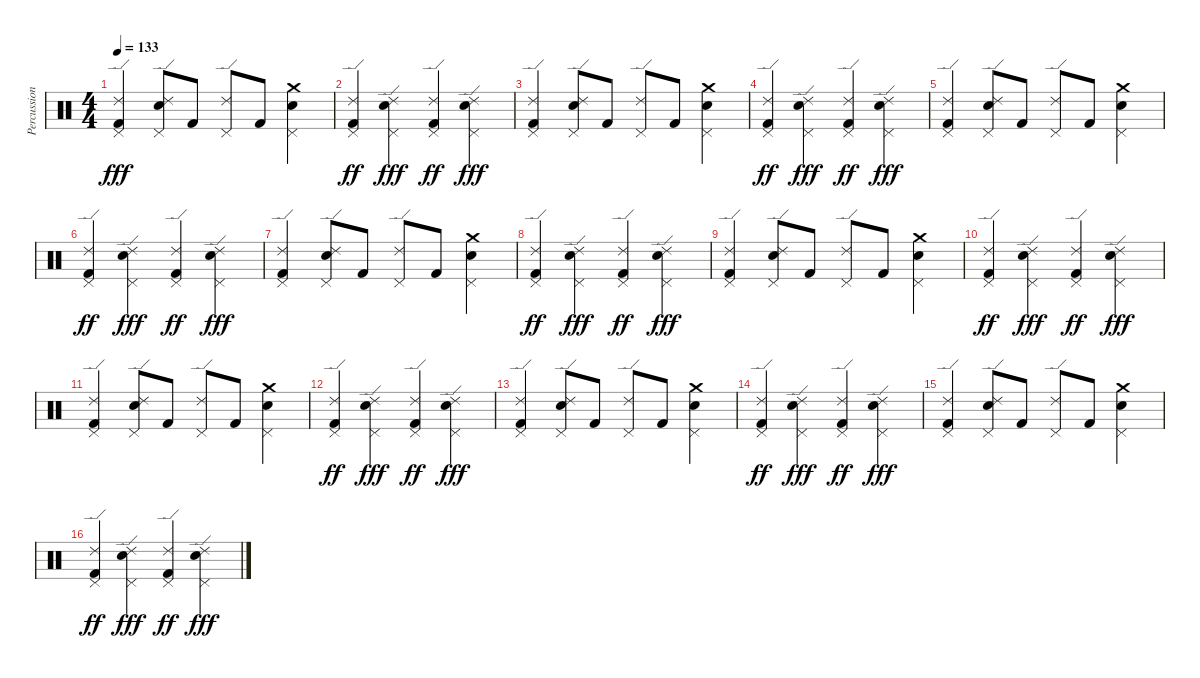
\track ("Percussion" "Percussion") {instrument percussion}
\staff {score}
\articulation defaults
\ts (4 4)
\tempo 133
\clef neutral
\ks c
("Ride (edge) 2" "Pedal Hi-Hat (hit)" "Kick (hit) 2").4{dy fff} ("Ride (edge) 2" "Electric Snare (hit)" "Pedal Hi-Hat (hit)").8 "Kick (hit) 2".8 ("Ride (edge) 2" "Pedal Hi-Hat (hit)").8 "Kick (hit) 2".8 ("Crash medium (hit)" "Electric Snare (hit)" "Pedal Hi-Hat (hit)").4 |
("Ride (edge) 2" "Pedal Hi-Hat (hit)" "Kick (hit) 2").4{dy ff} ("Ride (edge) 2" "Electric Snare (hit)" "Pedal Hi-Hat (hit)").4{dy fff} ("Ride (edge) 2" "Pedal Hi-Hat (hit)" "Kick (hit) 2").4{dy ff} ("Ride (edge) 2" "Electric Snare (hit)" "Pedal Hi-Hat (hit)").4{dy fff} |
("Ride (edge) 2" "Pedal Hi-Hat (hit)" "Kick (hit) 2").4 ("Ride (edge) 2" "Electric Snare (hit)" "Pedal Hi-Hat (hit)").8 "Kick (hit) 2".8 ("Ride (edge) 2" "Pedal Hi-Hat (hit)").8 "Kick (hit) 2".8 ("Crash medium (hit)" "Electric Snare (hit)" "Pedal Hi-Hat (hit)").4 |
("Ride (edge) 2" "Pedal Hi-Hat (hit)" "Kick (hit) 2").4{dy ff} ("Ride (edge) 2" "Electric Snare (hit)" "Pedal Hi-Hat (hit)").4{dy fff} ("Ride (edge) 2" "Pedal Hi-Hat (hit)" "Kick (hit) 2").4{dy ff} ("Ride (edge) 2" "Electric Snare (hit)" "Pedal Hi-Hat (hit)").4{dy fff} |
("Ride (edge) 2" "Pedal Hi-Hat (hit)" "Kick (hit) 2").4 ("Ride (edge) 2" "Electric Snare (hit)" "Pedal Hi-Hat (hit)").8 "Kick (hit) 2".8 ("Ride (edge) 2" "Pedal Hi-Hat (hit)").8 "Kick (hit) 2".8 ("Crash medium (hit)" "Electric Snare (hit)" "Pedal Hi-Hat (hit)").4 |
("Ride (edge) 2" "Pedal Hi-Hat (hit)" "Kick (hit) 2").4{dy ff} ("Ride (edge) 2" "Electric Snare (hit)" "Pedal Hi-Hat (hit)").4{dy fff} ("Ride (edge) 2" "Pedal Hi-Hat (hit)" "Kick (hit) 2").4{dy ff} ("Ride (edge) 2" "Electric Snare (hit)" "Pedal Hi-Hat (hit)").4{dy fff} |
("Ride (edge) 2" "Pedal Hi-Hat (hit)" "Kick (hit) 2").4 ("Ride (edge) 2" "Electric Snare (hit)" "Pedal Hi-Hat (hit)").8 "Kick (hit) 2".8 ("Ride (edge) 2" "Pedal Hi-Hat (hit)").8 "Kick (hit) 2".8 ("Crash medium (hit)" "Electric Snare (hit)" "Pedal Hi-Hat (hit)").4 |
("Ride (edge) 2" "Pedal Hi-Hat (hit)" "Kick (hit) 2").4{dy ff} ("Ride (edge) 2" "Electric Snare (hit)" "Pedal Hi-Hat (hit)").4{dy fff} ("Ride (edge) 2" "Pedal Hi-Hat (hit)" "Kick (hit) 2").4{dy ff} ("Ride (edge) 2" "Electric Snare (hit)" "Pedal Hi-Hat (hit)").4{dy fff} |
("Ride (edge) 2" "Pedal Hi-Hat (hit)" "Kick (hit) 2").4 ("Ride (edge) 2" "Electric Snare (hit)" "Pedal Hi-Hat (hit)").8 "Kick (hit) 2".8 ("Ride (edge) 2" "Pedal Hi-Hat (hit)").8 "Kick (hit) 2".8 ("Crash medium (hit)" "Electric Snare (hit)" "Pedal Hi-Hat (hit)").4 |
("Ride (edge) 2" "Pedal Hi-Hat (hit)" "Kick (hit) 2").4{dy ff} ("Ride (edge) 2" "Electric Snare (hit)" "Pedal Hi-Hat (hit)").4{dy fff} ("Ride (edge) 2" "Pedal Hi-Hat (hit)" "Kick (hit) 2").4{dy ff} ("Ride (edge) 2" "Electric Snare (hit)" "Pedal Hi-Hat (hit)").4{dy fff} |
("Ride (edge) 2" "Pedal Hi-Hat (hit)" "Kick (hit) 2").4 ("Ride (edge) 2" "Electric Snare (hit)" "Pedal Hi-Hat (hit)").8 "Kick (hit) 2".8 ("Ride (edge) 2" "Pedal Hi-Hat (hit)").8 "Kick (hit) 2".8 ("Crash medium (hit)" "Electric Snare (hit)" "Pedal Hi-Hat (hit)").4 |
("Ride (edge) 2" "Pedal Hi-Hat (hit)" "Kick (hit) 2").4{dy ff} ("Ride (edge) 2" "Electric Snare (hit)" "Pedal Hi-Hat (hit)").4{dy fff} ("Ride (edge) 2" "Pedal Hi-Hat (hit)" "Kick (hit) 2").4{dy ff} ("Ride (edge) 2" "Electric Snare (hit)" "Pedal Hi-Hat (hit)").4{dy fff} |
("Ride (edge) 2" "Pedal Hi-Hat (hit)" "Kick (hit) 2").4 ("Ride (edge) 2" "Electric Snare (hit)" "Pedal Hi-Hat (hit)").8 "Kick (hit) 2".8 ("Ride (edge) 2" "Pedal Hi-Hat (hit)").8 "Kick (hit) 2".8 ("Crash medium (hit)" "Electric Snare (hit)" "Pedal Hi-Hat (hit)").4 |
("Ride (edge) 2" "Pedal Hi-Hat (hit)" "Kick (hit) 2").4{dy ff} ("Ride (edge) 2" "Electric Snare (hit)" "Pedal Hi-Hat (hit)").4{dy fff} ("Ride (edge) 2" "Pedal Hi-Hat (hit)" "Kick (hit) 2").4{dy ff} ("Ride (edge) 2" "Electric Snare (hit)" "Pedal Hi-Hat (hit)").4{dy fff} |
("Ride (edge) 2" "Pedal Hi-Hat (hit)" "Kick (hit) 2").4 ("Ride (edge) 2" "Electric Snare (hit)" "Pedal Hi-Hat (hit)").8 "Kick (hit) 2".8 ("Ride (edge) 2" "Pedal Hi-Hat (hit)").8 "Kick (hit) 2".8 ("Crash medium (hit)" "Electric Snare (hit)" "Pedal Hi-Hat (hit)").4 |
("Ride (edge) 2" "Pedal Hi-Hat (hit)" "Kick (hit) 2").4{dy ff} ("Ride (edge) 2" "Electric Snare (hit)" "Pedal Hi-Hat (hit)").4{dy fff} ("Ride (edge) 2" "Pedal Hi-Hat (hit)" "Kick (hit) 2").4{dy ff} ("Ride (edge) 2" "Electric Snare (hit)" "Pedal Hi-Hat (hit)").4{dy fff}
